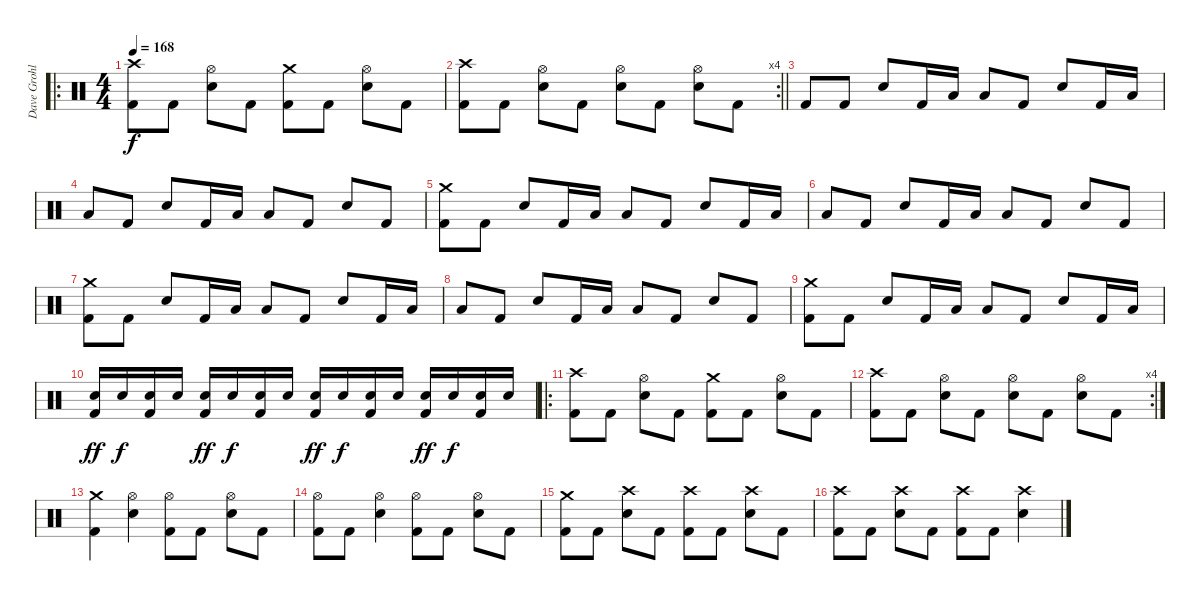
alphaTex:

\track ("Dave Grohl - Drums" "Dave Grohl") {instrument percussion}
\staff {score}
\articulation defaults
\ro
\ts (4 4)
\tempo 168
\clef neutral
\ks c
("Crash high (hit)" "Kick (hit) 2").8{dy f volume 13} "Kick (hit) 2".8 ("Hi-Hat (open)" "Electric Snare (hit)").8 "Kick (hit) 2".8 ("Crash medium (hit)" "Kick (hit) 2").8 "Kick (hit) 2".8 ("Hi-Hat (open)" "Electric Snare (hit)").8 "Kick (hit) 2".8 |
\rc 4
\barLineRight lightlight
("Crash high (hit)" "Kick (hit) 2").8{volume 13} "Kick (hit) 2".8 ("Hi-Hat (open)" "Electric Snare (hit)").8 "Kick (hit) 2".8 ("Hi-Hat (open)" "Electric Snare (hit)").8 "Kick (hit) 2".8 ("Hi-Hat (open)" "Electric Snare (hit)").8 "Kick (hit) 2".8 |
"Kick (hit) 2".8 "Kick (hit) 2".8 "Electric Snare (hit)".8 "Kick (hit) 2".16 "Low Floor Tom (hit)".16 "Low Tom (hit)".8 "Kick (hit) 2".8 "Electric Snare (hit)".8 "Kick (hit) 2".16 "Low Floor Tom (hit)".16 |
"Low Tom (hit)".8 "Kick (hit) 2".8 "Electric Snare (hit)".8 "Kick (hit) 2".16 "Low Floor Tom (hit)".16 "Low Tom (hit)".8 "Kick (hit) 2".8 "Electric Snare (hit)".8 "Kick (hit) 2".8 |
("Crash medium (hit)" "Kick (hit) 2").8 "Kick (hit) 2".8 "Electric Snare (hit)".8 "Kick (hit) 2".16 "Low Floor Tom (hit)".16 "Low Tom (hit)".8 "Kick (hit) 2".8 "Electric Snare (hit)".8 "Kick (hit) 2".16 "Low Floor Tom (hit)".16 |
"Low Tom (hit)".8 "Kick (hit) 2".8 "Electric Snare (hit)".8 "Kick (hit) 2".16 "Low Floor Tom (hit)".16 "Low Tom (hit)".8 "Kick (hit) 2".8 "Electric Snare (hit)".8 "Kick (hit) 2".8 |
("Crash medium (hit)" "Kick (hit) 2").8 "Kick (hit) 2".8 "Electric Snare (hit)".8 "Kick (hit) 2".16 "Low Floor Tom (hit)".16 "Low Tom (hit)".8 "Kick (hit) 2".8 "Electric Snare (hit)".8 "Kick (hit) 2".16 "Low Floor Tom (hit)".16 |
"Low Tom (hit)".8 "Kick (hit) 2".8 "Electric Snare (hit)".8 "Kick (hit) 2".16 "Low Floor Tom (hit)".16 "Low Tom (hit)".8 "Kick (hit) 2".8 "Electric Snare (hit)".8 "Kick (hit) 2".8 |
("Crash medium (hit)" "Kick (hit) 2").8 "Kick (hit) 2".8 "Electric Snare (hit)".8 "Kick (hit) 2".16 "Low Floor Tom (hit)".16 "Low Tom (hit)".8 "Kick (hit) 2".8 "Electric Snare (hit)".8 "Kick (hit) 2".16 "Low Floor Tom (hit)".16 |
("Electric Snare (hit)" "Kick (hit) 2").16{dy ff volume 12} "Electric Snare (hit)".16{dy f} ("Electric Snare (hit)" "Kick (hit) 2").16 "Electric Snare (hit)".16 ("Electric Snare (hit)" "Kick (hit) 2").16{dy ff} "Electric Snare (hit)".16{dy f} ("Electric Snare (hit)" "Kick (hit) 2").16 "Electric Snare (hit)".16 ("Electric Snare (hit)" "Kick (hit) 2").16{dy ff} "Electric Snare (hit)".16{dy f} ("Electric Snare (hit)" "Kick (hit) 2").16 "Electric Snare (hit)".16 ("Electric Snare (hit)" "Kick (hit) 2").16{dy ff} "Electric Snare (hit)".16{dy f} ("Electric Snare (hit)" "Kick (hit) 2").16 "Electric Snare (hit)".16 |
\ro
("Crash high (hit)" "Kick (hit) 2").8{volume 13} "Kick (hit) 2".8 ("Hi-Hat (open)" "Electric Snare (hit)").8 "Kick (hit) 2".8 ("Crash medium (hit)" "Kick (hit) 2").8 "Kick (hit) 2".8 ("Hi-Hat (open)" "Electric Snare (hit)").8 "Kick (hit) 2".8 |
\rc 4
("Crash high (hit)" "Kick (hit) 2").8{volume 13} "Kick (hit) 2".8 ("Hi-Hat (open)" "Electric Snare (hit)").8 "Kick (hit) 2".8 ("Hi-Hat (open)" "Electric Snare (hit)").8 "Kick (hit) 2".8 ("Hi-Hat (open)" "Electric Snare (hit)").8 "Kick (hit) 2".8 |
("Crash medium (hit)" "Kick (hit) 2").4 ("Hi-Hat (open)" "Electric Snare (hit)").4 ("Hi-Hat (open)" "Kick (hit) 2").8 "Kick (hit) 2".8 ("Hi-Hat (open)" "Electric Snare (hit)").8 "Kick (hit) 2".8 |
("Hi-Hat (open)" "Kick (hit) 2").8 "Kick (hit) 2".8 ("Hi-Hat (open)" "Electric Snare (hit)").4 ("Hi-Hat (open)" "Kick (hit) 2").8 "Kick (hit) 2".8 ("Hi-Hat (open)" "Electric Snare (hit)").8 "Kick (hit) 2".8 |
("Crash medium (hit)" "Kick (hit) 2").8 "Kick (hit) 2".8 ("Crash high (hit)" "Electric Snare (hit)").8 "Kick (hit) 2".8 ("Crash high (hit)" "Kick (hit) 2").8 "Kick (hit) 2".8 ("Crash high (hit)" "Electric Snare (hit)").8 "Kick (hit) 2".8 |
("Crash high (hit)" "Kick (hit) 2").8 "Kick (hit) 2".8 ("Crash high (hit)" "Electric Snare (hit)").8 "Kick (hit) 2".8 ("Crash high (hit)" "Kick (hit) 2").8 "Kick (hit) 2".8 ("Crash high (hit)" "Electric Snare (hit)").4
